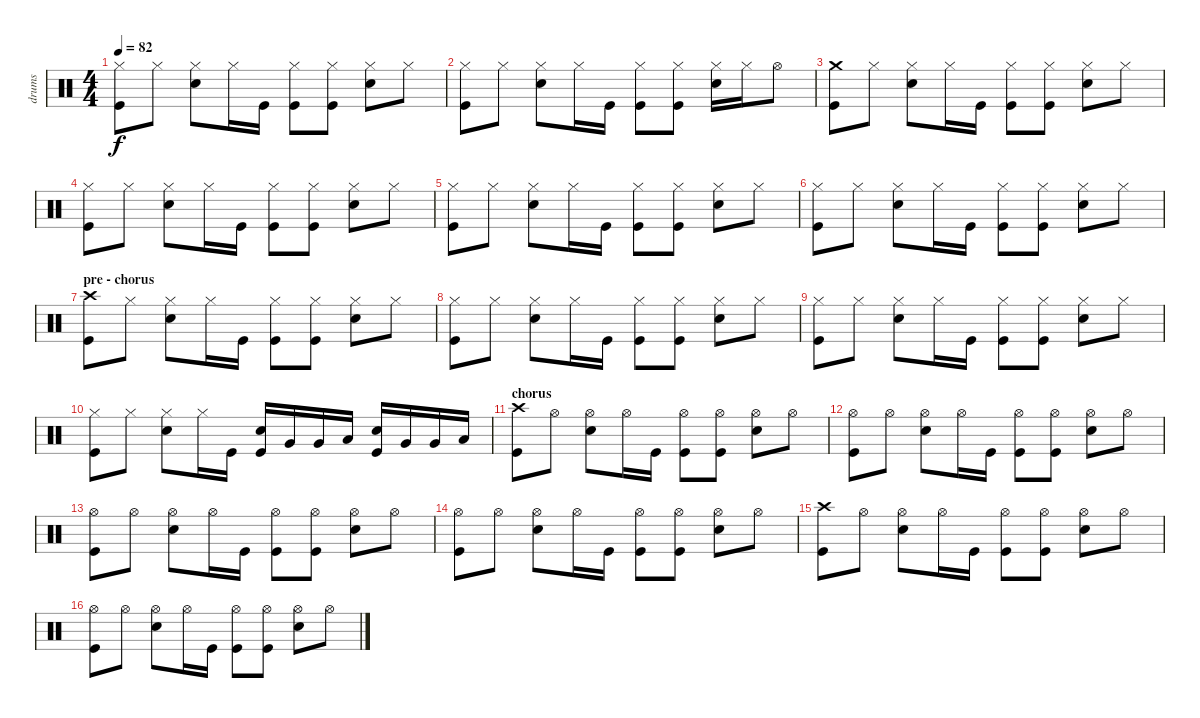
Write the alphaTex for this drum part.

\track ("drums" "drums") {instrument percussion}
\staff {score}
\articulation defaults
\ts (4 4)
\tempo 82
\clef neutral
\ks c
("Hi-Hat (closed)" "Kick (hit)").8{dy f} "Hi-Hat (closed)".8 ("Hi-Hat (closed)" "Snare (hit) 2").8 "Hi-Hat (closed)".16 "Kick (hit)".16 ("Hi-Hat (closed)" "Kick (hit)").8 ("Hi-Hat (closed)" "Kick (hit)").8 ("Hi-Hat (closed)" "Snare (hit) 2").8 "Hi-Hat (closed)".8 |
("Hi-Hat (closed)" "Kick (hit)").8 "Hi-Hat (closed)".8 ("Hi-Hat (closed)" "Snare (hit) 2").8 "Hi-Hat (closed)".16 "Kick (hit)".16 ("Hi-Hat (closed)" "Kick (hit)").8 ("Hi-Hat (closed)" "Kick (hit)").8 ("Hi-Hat (closed)" "Snare (hit) 2").16 "Hi-Hat (closed)".16 "Hi-Hat (open)".8 |
("Crash medium (hit)" "Kick (hit)").8 "Hi-Hat (closed)".8 ("Hi-Hat (closed)" "Snare (hit) 2").8 "Hi-Hat (closed)".16 "Kick (hit)".16 ("Hi-Hat (closed)" "Kick (hit)").8 ("Hi-Hat (closed)" "Kick (hit)").8 ("Hi-Hat (closed)" "Snare (hit) 2").8 "Hi-Hat (closed)".8 |
("Hi-Hat (closed)" "Kick (hit)").8 "Hi-Hat (closed)".8 ("Hi-Hat (closed)" "Snare (hit) 2").8 "Hi-Hat (closed)".16 "Kick (hit)".16 ("Hi-Hat (closed)" "Kick (hit)").8 ("Hi-Hat (closed)" "Kick (hit)").8 ("Hi-Hat (closed)" "Snare (hit) 2").8 "Hi-Hat (closed)".8 |
("Hi-Hat (closed)" "Kick (hit)").8 "Hi-Hat (closed)".8 ("Hi-Hat (closed)" "Snare (hit) 2").8 "Hi-Hat (closed)".16 "Kick (hit)".16 ("Hi-Hat (closed)" "Kick (hit)").8 ("Hi-Hat (closed)" "Kick (hit)").8 ("Hi-Hat (closed)" "Snare (hit) 2").8 "Hi-Hat (closed)".8 |
("Hi-Hat (closed)" "Kick (hit)").8 "Hi-Hat (closed)".8 ("Hi-Hat (closed)" "Snare (hit) 2").8 "Hi-Hat (closed)".16 "Kick (hit)".16 ("Hi-Hat (closed)" "Kick (hit)").8 ("Hi-Hat (closed)" "Kick (hit)").8 ("Hi-Hat (closed)" "Snare (hit) 2").8 "Hi-Hat (closed)".8 |
\section ("" "pre - chorus")
("Crash high (hit)" "Kick (hit)").8 "Hi-Hat (closed)".8 ("Hi-Hat (closed)" "Snare (hit) 2").8 "Hi-Hat (closed)".16 "Kick (hit)".16 ("Hi-Hat (closed)" "Kick (hit)").8 ("Hi-Hat (closed)" "Kick (hit)").8 ("Hi-Hat (closed)" "Snare (hit) 2").8 "Hi-Hat (closed)".8 |
("Hi-Hat (closed)" "Kick (hit)").8 "Hi-Hat (closed)".8 ("Hi-Hat (closed)" "Snare (hit) 2").8 "Hi-Hat (closed)".16 "Kick (hit)".16 ("Hi-Hat (closed)" "Kick (hit)").8 ("Hi-Hat (closed)" "Kick (hit)").8 ("Hi-Hat (closed)" "Snare (hit) 2").8 "Hi-Hat (closed)".8 |
("Hi-Hat (closed)" "Kick (hit)").8 "Hi-Hat (closed)".8 ("Hi-Hat (closed)" "Snare (hit) 2").8 "Hi-Hat (closed)".16 "Kick (hit)".16 ("Hi-Hat (closed)" "Kick (hit)").8 ("Hi-Hat (closed)" "Kick (hit)").8 ("Hi-Hat (closed)" "Snare (hit) 2").8 "Hi-Hat (closed)".8 |
("Hi-Hat (closed)" "Kick (hit)").8 "Hi-Hat (closed)".8 ("Hi-Hat (closed)" "Snare (hit) 2").8 "Hi-Hat (closed)".16 "Kick (hit)".16 ("Snare (hit) 2" "Kick (hit)").16 "Very Low Tom (hit)".16 "Very Low Tom (hit)".16 "Low Floor Tom (hit)".16 ("Snare (hit) 2" "Kick (hit)").16 "Very Low Tom (hit)".16 "Very Low Tom (hit)".16 "Low Floor Tom (hit)".16 |
\section ("" "chorus")
("Crash high (hit)" "Kick (hit)").8 "Hi-Hat (open)".8 ("Hi-Hat (open)" "Snare (hit) 2").8 "Hi-Hat (open)".16 "Kick (hit)".16 ("Hi-Hat (open)" "Kick (hit)").8 ("Hi-Hat (open)" "Kick (hit)").8 ("Hi-Hat (open)" "Snare (hit) 2").8 "Hi-Hat (open)".8 |
("Hi-Hat (open)" "Kick (hit)").8 "Hi-Hat (open)".8 ("Hi-Hat (open)" "Snare (hit) 2").8 "Hi-Hat (open)".16 "Kick (hit)".16 ("Hi-Hat (open)" "Kick (hit)").8 ("Hi-Hat (open)" "Kick (hit)").8 ("Hi-Hat (open)" "Snare (hit) 2").8 "Hi-Hat (open)".8 |
("Hi-Hat (open)" "Kick (hit)").8 "Hi-Hat (open)".8 ("Hi-Hat (open)" "Snare (hit) 2").8 "Hi-Hat (open)".16 "Kick (hit)".16 ("Hi-Hat (open)" "Kick (hit)").8 ("Hi-Hat (open)" "Kick (hit)").8 ("Hi-Hat (open)" "Snare (hit) 2").8 "Hi-Hat (open)".8 |
("Hi-Hat (open)" "Kick (hit)").8 "Hi-Hat (open)".8 ("Hi-Hat (open)" "Snare (hit) 2").8 "Hi-Hat (open)".16 "Kick (hit)".16 ("Hi-Hat (open)" "Kick (hit)").8 ("Hi-Hat (open)" "Kick (hit)").8 ("Hi-Hat (open)" "Snare (hit) 2").8 "Hi-Hat (open)".8 |
("Crash high (hit)" "Kick (hit)").8 "Hi-Hat (open)".8 ("Hi-Hat (open)" "Snare (hit) 2").8 "Hi-Hat (open)".16 "Kick (hit)".16 ("Hi-Hat (open)" "Kick (hit)").8 ("Hi-Hat (open)" "Kick (hit)").8 ("Hi-Hat (open)" "Snare (hit) 2").8 "Hi-Hat (open)".8 |
("Hi-Hat (open)" "Kick (hit)").8 "Hi-Hat (open)".8 ("Hi-Hat (open)" "Snare (hit) 2").8 "Hi-Hat (open)".16 "Kick (hit)".16 ("Hi-Hat (open)" "Kick (hit)").8 ("Hi-Hat (open)" "Kick (hit)").8 ("Hi-Hat (open)" "Snare (hit) 2").8 "Hi-Hat (open)".8
